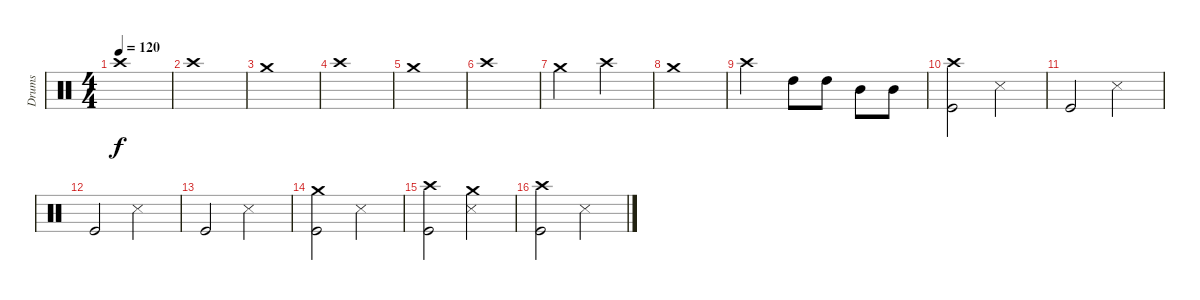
\track ("Drums" "Drums") {instrument percussion}
\staff {score}
\articulation defaults
\ts (4 4)
\tempo 120
\clef neutral
\ks c "Crash high (hit)".1{dy f}
|
"Crash high (hit)".1 |
"Crash medium (hit)".1 |
"Crash high (hit)".1 |
"Crash medium (hit)".1 |
"Crash high (hit)".1 |
"Crash medium (hit)".2 "Crash high (hit)".2 |
"Crash medium (hit)".1 |
"Crash high (hit)".2 "High Tom (hit)".8 "High Tom (hit)".8 "Mid Tom (hit)".8 "Mid Tom (hit)".8 |
("Crash high (hit)" "Kick (hit)").2 "Snare (side stick) 3".2 |
"Kick (hit)".2 "Snare (side stick) 3".2 |
"Kick (hit)".2 "Snare (side stick) 3".2 |
"Kick (hit)".2 "Snare (side stick) 3".2 |
("Crash medium (hit)" "Kick (hit)").2 "Snare (side stick) 3".2 |
("Crash high (hit)" "Kick (hit)").2 ("Crash medium (hit)" "Snare (side stick) 3").2 |
("Crash high (hit)" "Kick (hit)").2 "Snare (side stick) 3".2
